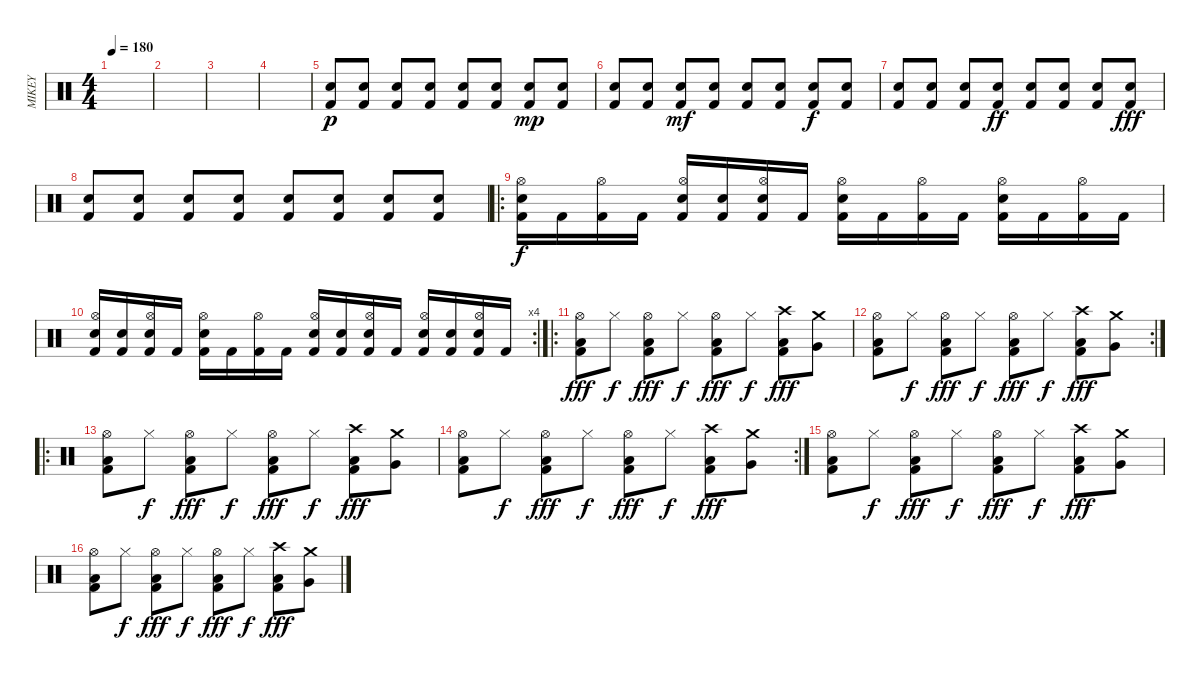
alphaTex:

\track ("MIKEY" "MIKEY") {instrument percussion}
\staff {score}
\articulation defaults
\ts (4 4)
\tempo 180
\clef neutral
\ks c
|
|
|
|
("Kick (hit) 2" "Electric Snare (hit)").8{dy p} ("Kick (hit) 2" "Electric Snare (hit)").8 ("Kick (hit) 2" "Electric Snare (hit)").8 ("Kick (hit) 2" "Electric Snare (hit)").8 ("Kick (hit) 2" "Electric Snare (hit)").8 ("Kick (hit) 2" "Electric Snare (hit)").8 ("Kick (hit) 2" "Electric Snare (hit)").8{dy mp} ("Kick (hit) 2" "Electric Snare (hit)").8 |
("Kick (hit) 2" "Electric Snare (hit)").8 ("Kick (hit) 2" "Electric Snare (hit)").8 ("Kick (hit) 2" "Electric Snare (hit)").8{dy mf} ("Kick (hit) 2" "Electric Snare (hit)").8 ("Kick (hit) 2" "Electric Snare (hit)").8 ("Kick (hit) 2" "Electric Snare (hit)").8 ("Kick (hit) 2" "Electric Snare (hit)").8{dy f} ("Kick (hit) 2" "Electric Snare (hit)").8 |
("Kick (hit) 2" "Electric Snare (hit)").8 ("Kick (hit) 2" "Electric Snare (hit)").8 ("Kick (hit) 2" "Electric Snare (hit)").8 ("Kick (hit) 2" "Electric Snare (hit)").8{dy ff} ("Kick (hit) 2" "Electric Snare (hit)").8 ("Kick (hit) 2" "Electric Snare (hit)").8 ("Kick (hit) 2" "Electric Snare (hit)").8 ("Kick (hit) 2" "Electric Snare (hit)").8{dy fff} |
("Kick (hit) 2" "Electric Snare (hit)").8 ("Kick (hit) 2" "Electric Snare (hit)").8 ("Kick (hit) 2" "Electric Snare (hit)").8 ("Kick (hit) 2" "Electric Snare (hit)").8 ("Kick (hit) 2" "Electric Snare (hit)").8 ("Kick (hit) 2" "Electric Snare (hit)").8 ("Kick (hit) 2" "Electric Snare (hit)").8 ("Kick (hit) 2" "Electric Snare (hit)").8 |
\ro
("Hi-Hat (open)" "Snare (hit) 2" "Kick (hit) 2").16{dy f} "Kick (hit) 2".16 ("Hi-Hat (open)" "Kick (hit) 2").16 "Kick (hit) 2".16 ("Hi-Hat (open)" "Snare (hit) 2" "Kick (hit) 2").16 ("Snare (hit) 2" "Kick (hit) 2").16 ("Hi-Hat (open)" "Snare (hit) 2" "Kick (hit) 2").16 "Kick (hit) 2".16 ("Hi-Hat (open)" "Snare (hit) 2" "Kick (hit) 2").16 "Kick (hit) 2".16 ("Hi-Hat (open)" "Kick (hit) 2").16 "Kick (hit) 2".16 ("Hi-Hat (open)" "Snare (hit) 2" "Kick (hit) 2").16 "Kick (hit) 2".16 ("Hi-Hat (open)" "Kick (hit) 2").16 "Kick (hit) 2".16 |
\rc 4
("Hi-Hat (open)" "Snare (hit) 2" "Kick (hit) 2").16 ("Snare (hit) 2" "Kick (hit) 2").16 ("Hi-Hat (open)" "Snare (hit) 2" "Kick (hit) 2").16 "Kick (hit) 2".16 ("Hi-Hat (open)" "Snare (hit) 2" "Kick (hit) 2").16 "Kick (hit) 2".16 ("Hi-Hat (open)" "Kick (hit) 2").16 "Kick (hit) 2".16 ("Hi-Hat (open)" "Snare (hit) 2" "Kick (hit) 2").16 ("Snare (hit) 2" "Kick (hit) 2").16 ("Hi-Hat (open)" "Snare (hit) 2" "Kick (hit) 2").16 "Kick (hit) 2".16 ("Hi-Hat (open)" "Snare (hit) 2" "Kick (hit) 2").16 ("Snare (hit) 2" "Kick (hit) 2").16 ("Hi-Hat (open)" "Snare (hit) 2" "Kick (hit) 2").16 "Kick (hit) 2".16 |
\ro
("Low Floor Tom (hit)" "Kick (hit) 2" "Hi-Hat (open)").8{dy fff} "Hi-Hat (closed)".8{dy f} ("Low Floor Tom (hit)" "Kick (hit) 2" "Hi-Hat (open)").8{dy fff} "Hi-Hat (closed)".8{dy f} ("Low Floor Tom (hit)" "Kick (hit) 2" "Hi-Hat (open)").8{dy fff} "Hi-Hat (closed)".8{dy f} ("Low Floor Tom (hit)" "Kick (hit) 2" "Crash high (hit)").8{dy fff} ("Very Low Tom (hit)" "Crash medium (hit)").8 |
\rc 2
("Low Floor Tom (hit)" "Kick (hit) 2" "Hi-Hat (open)").8 "Hi-Hat (closed)".8{dy f} ("Low Floor Tom (hit)" "Kick (hit) 2" "Hi-Hat (open)").8{dy fff} "Hi-Hat (closed)".8{dy f} ("Low Floor Tom (hit)" "Kick (hit) 2" "Hi-Hat (open)").8{dy fff} "Hi-Hat (closed)".8{dy f} ("Low Floor Tom (hit)" "Kick (hit) 2" "Crash high (hit)").8{dy fff} ("Very Low Tom (hit)" "Crash medium (hit)").8 |
\ro
("Low Floor Tom (hit)" "Kick (hit) 2" "Hi-Hat (open)").8 "Hi-Hat (closed)".8{dy f} ("Low Floor Tom (hit)" "Kick (hit) 2" "Hi-Hat (open)").8{dy fff} "Hi-Hat (closed)".8{dy f} ("Low Floor Tom (hit)" "Kick (hit) 2" "Hi-Hat (open)").8{dy fff} "Hi-Hat (closed)".8{dy f} ("Low Floor Tom (hit)" "Kick (hit) 2" "Crash high (hit)").8{dy fff} ("Very Low Tom (hit)" "Crash medium (hit)").8 |
\rc 2
("Low Floor Tom (hit)" "Kick (hit) 2" "Hi-Hat (open)").8 "Hi-Hat (closed)".8{dy f} ("Low Floor Tom (hit)" "Kick (hit) 2" "Hi-Hat (open)").8{dy fff} "Hi-Hat (closed)".8{dy f} ("Low Floor Tom (hit)" "Kick (hit) 2" "Hi-Hat (open)").8{dy fff} "Hi-Hat (closed)".8{dy f} ("Low Floor Tom (hit)" "Kick (hit) 2" "Crash high (hit)").8{dy fff} ("Very Low Tom (hit)" "Crash medium (hit)").8 |
("Low Floor Tom (hit)" "Kick (hit) 2" "Hi-Hat (open)").8 "Hi-Hat (closed)".8{dy f} ("Low Floor Tom (hit)" "Kick (hit) 2" "Hi-Hat (open)").8{dy fff} "Hi-Hat (closed)".8{dy f} ("Low Floor Tom (hit)" "Kick (hit) 2" "Hi-Hat (open)").8{dy fff} "Hi-Hat (closed)".8{dy f} ("Low Floor Tom (hit)" "Kick (hit) 2" "Crash high (hit)").8{dy fff} ("Very Low Tom (hit)" "Crash medium (hit)").8 |
("Low Floor Tom (hit)" "Kick (hit) 2" "Hi-Hat (open)").8 "Hi-Hat (closed)".8{dy f} ("Low Floor Tom (hit)" "Kick (hit) 2" "Hi-Hat (open)").8{dy fff} "Hi-Hat (closed)".8{dy f} ("Low Floor Tom (hit)" "Kick (hit) 2" "Hi-Hat (open)").8{dy fff} "Hi-Hat (closed)".8{dy f} ("Low Floor Tom (hit)" "Kick (hit) 2" "Crash high (hit)").8{dy fff} ("Very Low Tom (hit)" "Crash medium (hit)").8
